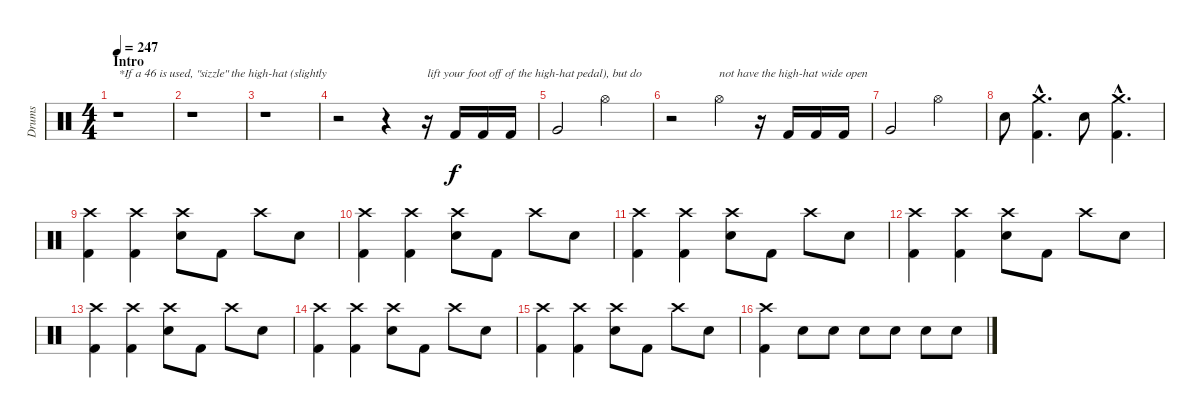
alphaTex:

\track ("Drums" "Drums") {instrument percussion}
\staff {score}
\articulation defaults
\ts (4 4)
\section ("" "Intro")
\tempo 247
\clef neutral
\ks c
r.1{txt "*If a 46 is used, \"sizzle\" the high-hat (slightly" dy f} |
r.1 |
r.1 |
r.2 r.4 r.16{txt "lift your foot off of the high-hat pedal), but do"} "Kick (hit) 2".16 "Kick (hit) 2".16 "Kick (hit) 2".16 |
"Very Low Tom (hit)".2 "Hi-Hat (open)".2 |
r.2 "Hi-Hat (open)".4{txt "not have the high-hat wide open"} r.16 "Kick (hit) 2".16 "Kick (hit) 2".16 "Kick (hit) 2".16 |
"Very Low Tom (hit)".2 "Hi-Hat (open)".2 |
"Electric Snare (hit)".8 ("Crash medium (hit)"{hac} "Kick (hit) 2"{hac}).4{d} "Electric Snare (hit)".8 ("Crash medium (hit)"{hac} "Kick (hit) 2"{hac}).4{d} |
("Crash high (hit)" "Kick (hit) 2").4 ("Crash high (hit)" "Kick (hit) 2").4 ("Crash high (hit)" "Electric Snare (hit)").8 "Kick (hit) 2".8 "Crash high (hit)".8 "Electric Snare (hit)".8 |
("Crash high (hit)" "Kick (hit) 2").4 ("Crash high (hit)" "Kick (hit) 2").4 ("Crash high (hit)" "Electric Snare (hit)").8 "Kick (hit) 2".8 "Crash high (hit)".8 "Electric Snare (hit)".8 |
("Crash high (hit)" "Kick (hit) 2").4 ("Crash high (hit)" "Kick (hit) 2").4 ("Crash high (hit)" "Electric Snare (hit)").8 "Kick (hit) 2".8 "Crash high (hit)".8 "Electric Snare (hit)".8 |
("Crash high (hit)" "Kick (hit) 2").4 ("Crash high (hit)" "Kick (hit) 2").4 ("Crash high (hit)" "Electric Snare (hit)").8 "Kick (hit) 2".8 "Crash high (hit)".8 "Electric Snare (hit)".8 |
("Crash high (hit)" "Kick (hit) 2").4 ("Crash high (hit)" "Kick (hit) 2").4 ("Crash high (hit)" "Electric Snare (hit)").8 "Kick (hit) 2".8 "Crash high (hit)".8 "Electric Snare (hit)".8 |
("Crash high (hit)" "Kick (hit) 2").4 ("Crash high (hit)" "Kick (hit) 2").4 ("Crash high (hit)" "Electric Snare (hit)").8 "Kick (hit) 2".8 "Crash high (hit)".8 "Electric Snare (hit)".8 |
("Crash high (hit)" "Kick (hit) 2").4 ("Crash high (hit)" "Kick (hit) 2").4 ("Crash high (hit)" "Electric Snare (hit)").8 "Kick (hit) 2".8 "Crash high (hit)".8 "Electric Snare (hit)".8 |
("Crash high (hit)" "Kick (hit) 2").4 "Electric Snare (hit)".8 "Electric Snare (hit)".8 "Electric Snare (hit)".8 "Electric Snare (hit)".8 "Electric Snare (hit)".8 "Electric Snare (hit)".8
